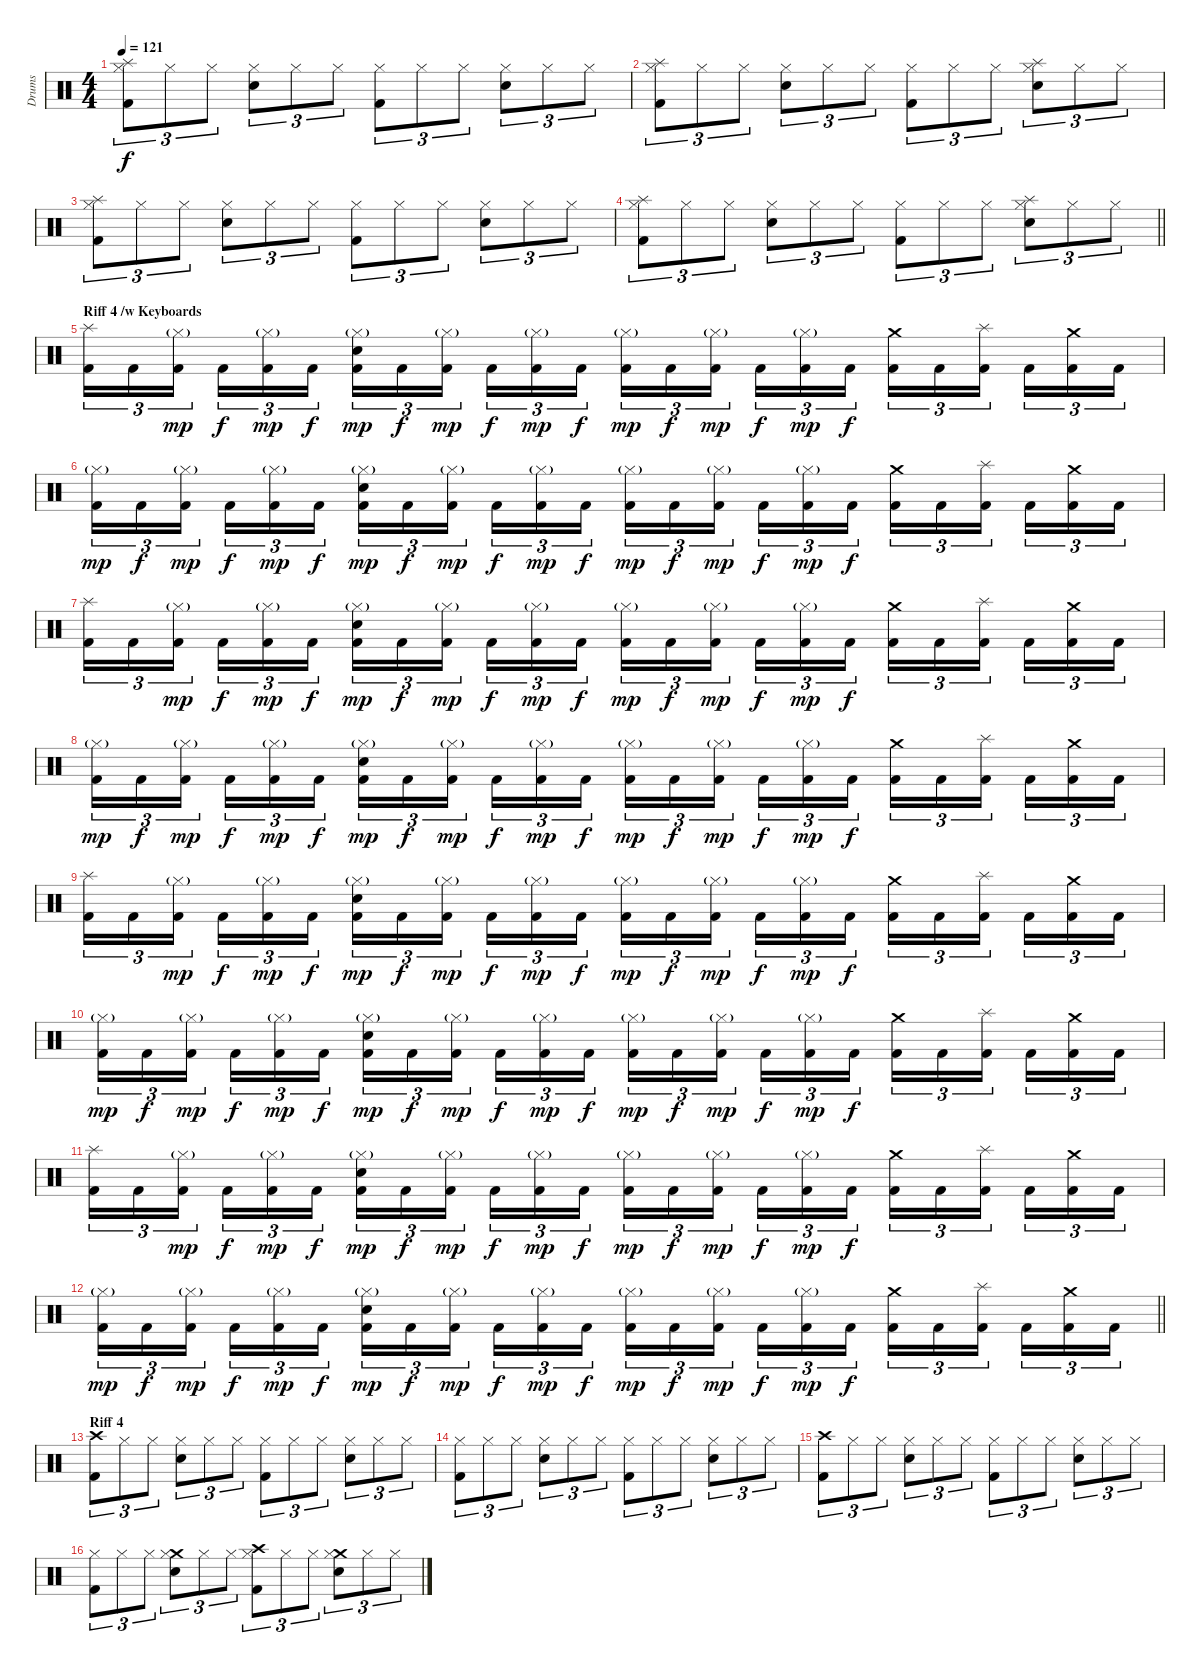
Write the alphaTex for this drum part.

\track ("Drums" "Drums") {instrument percussion}
\staff {score}
\articulation defaults
\ts (4 4)
\tempo 121
\clef neutral
\ks c
("Splash (hit)" "Kick (hit) 2" "Hi-Hat (closed)").8{tu (3 2) dy f} "Hi-Hat (closed)".8{tu (3 2)} "Hi-Hat (closed)".8{tu (3 2)} ("Snare (hit) 2" "Hi-Hat (closed)").8{tu (3 2)} "Hi-Hat (closed)".8{tu (3 2)} "Hi-Hat (closed)".8{tu (3 2)} ("Kick (hit) 2" "Hi-Hat (closed)").8{tu (3 2)} "Hi-Hat (closed)".8{tu (3 2)} "Hi-Hat (closed)".8{tu (3 2)} ("Snare (hit) 2" "Hi-Hat (closed)").8{tu (3 2)} "Hi-Hat (closed)".8{tu (3 2)} "Hi-Hat (closed)".8{tu (3 2)} |
("Splash (hit)" "Kick (hit) 2" "Hi-Hat (closed)").8{tu (3 2)} "Hi-Hat (closed)".8{tu (3 2)} "Hi-Hat (closed)".8{tu (3 2)} ("Snare (hit) 2" "Hi-Hat (closed)").8{tu (3 2)} "Hi-Hat (closed)".8{tu (3 2)} "Hi-Hat (closed)".8{tu (3 2)} ("Kick (hit) 2" "Hi-Hat (closed)").8{tu (3 2)} "Hi-Hat (closed)".8{tu (3 2)} "Hi-Hat (closed)".8{tu (3 2)} ("Splash (hit)" "Snare (hit) 2" "Hi-Hat (closed)").8{tu (3 2)} "Hi-Hat (closed)".8{tu (3 2)} "Hi-Hat (closed)".8{tu (3 2)} |
("Splash (hit)" "Kick (hit) 2" "Hi-Hat (closed)").8{tu (3 2)} "Hi-Hat (closed)".8{tu (3 2)} "Hi-Hat (closed)".8{tu (3 2)} ("Snare (hit) 2" "Hi-Hat (closed)").8{tu (3 2)} "Hi-Hat (closed)".8{tu (3 2)} "Hi-Hat (closed)".8{tu (3 2)} ("Kick (hit) 2" "Hi-Hat (closed)").8{tu (3 2)} "Hi-Hat (closed)".8{tu (3 2)} "Hi-Hat (closed)".8{tu (3 2)} ("Snare (hit) 2" "Hi-Hat (closed)").8{tu (3 2)} "Hi-Hat (closed)".8{tu (3 2)} "Hi-Hat (closed)".8{tu (3 2)} |
\barLineRight lightlight
("Splash (hit)" "Kick (hit) 2" "Hi-Hat (closed)").8{tu (3 2)} "Hi-Hat (closed)".8{tu (3 2)} "Hi-Hat (closed)".8{tu (3 2)} ("Snare (hit) 2" "Hi-Hat (closed)").8{tu (3 2)} "Hi-Hat (closed)".8{tu (3 2)} "Hi-Hat (closed)".8{tu (3 2)} ("Kick (hit) 2" "Hi-Hat (closed)").8{tu (3 2)} "Hi-Hat (closed)".8{tu (3 2)} "Hi-Hat (closed)".8{tu (3 2)} ("Splash (hit)" "Snare (hit) 2" "Hi-Hat (closed)").8{tu (3 2)} "Hi-Hat (closed)".8{tu (3 2)} "Hi-Hat (closed)".8{tu (3 2)} |
\section ("" "Riff 4 /w Keyboards")
("Kick (hit) 2" "Splash (hit)").16{tu (3 2)} "Kick (hit) 2".16{tu (3 2)} ("Kick (hit) 2" "Hi-Hat (closed)"{g}).16{tu (3 2) dy mp beam splitsecondary} "Kick (hit) 2".16{tu (3 2) dy f} ("Kick (hit) 2" "Hi-Hat (closed)"{g}).16{tu (3 2) dy mp} "Kick (hit) 2".16{tu (3 2) dy f} ("Kick (hit) 2" "Snare (hit) 2" "Hi-Hat (closed)"{g}).16{tu (3 2) dy mp} "Kick (hit) 2".16{tu (3 2) dy f} ("Kick (hit) 2" "Hi-Hat (closed)"{g}).16{tu (3 2) dy mp beam splitsecondary} "Kick (hit) 2".16{tu (3 2) dy f} ("Kick (hit) 2" "Hi-Hat (closed)"{g}).16{tu (3 2) dy mp} "Kick (hit) 2".16{tu (3 2) dy f} ("Kick (hit) 2" "Hi-Hat (closed)"{g}).16{tu (3 2) dy mp} "Kick (hit) 2".16{tu (3 2) dy f} ("Kick (hit) 2" "Hi-Hat (closed)"{g}).16{tu (3 2) dy mp beam splitsecondary} "Kick (hit) 2".16{tu (3 2) dy f} ("Kick (hit) 2" "Hi-Hat (closed)"{g}).16{tu (3 2) dy mp} "Kick (hit) 2".16{tu (3 2) dy f} ("Kick (hit) 2" "Crash medium (hit)").16{tu (3 2)} "Kick (hit) 2".16{tu (3 2)} ("Kick (hit) 2" "Splash (hit)").16{tu (3 2) beam splitsecondary} "Kick (hit) 2".16{tu (3 2)} ("Kick (hit) 2" "Crash medium (hit)").16{tu (3 2)} "Kick (hit) 2".16{tu (3 2)} |
("Kick (hit) 2" "Hi-Hat (closed)"{g}).16{tu (3 2) dy mp} "Kick (hit) 2".16{tu (3 2) dy f} ("Kick (hit) 2" "Hi-Hat (closed)"{g}).16{tu (3 2) dy mp beam splitsecondary} "Kick (hit) 2".16{tu (3 2) dy f} ("Kick (hit) 2" "Hi-Hat (closed)"{g}).16{tu (3 2) dy mp} "Kick (hit) 2".16{tu (3 2) dy f} ("Kick (hit) 2" "Snare (hit) 2" "Hi-Hat (closed)"{g}).16{tu (3 2) dy mp} "Kick (hit) 2".16{tu (3 2) dy f} ("Kick (hit) 2" "Hi-Hat (closed)"{g}).16{tu (3 2) dy mp beam splitsecondary} "Kick (hit) 2".16{tu (3 2) dy f} ("Kick (hit) 2" "Hi-Hat (closed)"{g}).16{tu (3 2) dy mp} "Kick (hit) 2".16{tu (3 2) dy f} ("Kick (hit) 2" "Hi-Hat (closed)"{g}).16{tu (3 2) dy mp} "Kick (hit) 2".16{tu (3 2) dy f} ("Kick (hit) 2" "Hi-Hat (closed)"{g}).16{tu (3 2) dy mp beam splitsecondary} "Kick (hit) 2".16{tu (3 2) dy f} ("Kick (hit) 2" "Hi-Hat (closed)"{g}).16{tu (3 2) dy mp} "Kick (hit) 2".16{tu (3 2) dy f} ("Kick (hit) 2" "Crash medium (hit)").16{tu (3 2)} "Kick (hit) 2".16{tu (3 2)} ("Kick (hit) 2" "Splash (hit)").16{tu (3 2) beam splitsecondary} "Kick (hit) 2".16{tu (3 2)} ("Kick (hit) 2" "Crash medium (hit)").16{tu (3 2)} "Kick (hit) 2".16{tu (3 2)} |
("Kick (hit) 2" "Splash (hit)").16{tu (3 2)} "Kick (hit) 2".16{tu (3 2)} ("Kick (hit) 2" "Hi-Hat (closed)"{g}).16{tu (3 2) dy mp beam splitsecondary} "Kick (hit) 2".16{tu (3 2) dy f} ("Kick (hit) 2" "Hi-Hat (closed)"{g}).16{tu (3 2) dy mp} "Kick (hit) 2".16{tu (3 2) dy f} ("Kick (hit) 2" "Snare (hit) 2" "Hi-Hat (closed)"{g}).16{tu (3 2) dy mp} "Kick (hit) 2".16{tu (3 2) dy f} ("Kick (hit) 2" "Hi-Hat (closed)"{g}).16{tu (3 2) dy mp beam splitsecondary} "Kick (hit) 2".16{tu (3 2) dy f} ("Kick (hit) 2" "Hi-Hat (closed)"{g}).16{tu (3 2) dy mp} "Kick (hit) 2".16{tu (3 2) dy f} ("Kick (hit) 2" "Hi-Hat (closed)"{g}).16{tu (3 2) dy mp} "Kick (hit) 2".16{tu (3 2) dy f} ("Kick (hit) 2" "Hi-Hat (closed)"{g}).16{tu (3 2) dy mp beam splitsecondary} "Kick (hit) 2".16{tu (3 2) dy f} ("Kick (hit) 2" "Hi-Hat (closed)"{g}).16{tu (3 2) dy mp} "Kick (hit) 2".16{tu (3 2) dy f} ("Kick (hit) 2" "Crash medium (hit)").16{tu (3 2)} "Kick (hit) 2".16{tu (3 2)} ("Kick (hit) 2" "Splash (hit)").16{tu (3 2) beam splitsecondary} "Kick (hit) 2".16{tu (3 2)} ("Kick (hit) 2" "Crash medium (hit)").16{tu (3 2)} "Kick (hit) 2".16{tu (3 2)} |
("Kick (hit) 2" "Hi-Hat (closed)"{g}).16{tu (3 2) dy mp} "Kick (hit) 2".16{tu (3 2) dy f} ("Kick (hit) 2" "Hi-Hat (closed)"{g}).16{tu (3 2) dy mp beam splitsecondary} "Kick (hit) 2".16{tu (3 2) dy f} ("Kick (hit) 2" "Hi-Hat (closed)"{g}).16{tu (3 2) dy mp} "Kick (hit) 2".16{tu (3 2) dy f} ("Kick (hit) 2" "Snare (hit) 2" "Hi-Hat (closed)"{g}).16{tu (3 2) dy mp} "Kick (hit) 2".16{tu (3 2) dy f} ("Kick (hit) 2" "Hi-Hat (closed)"{g}).16{tu (3 2) dy mp beam splitsecondary} "Kick (hit) 2".16{tu (3 2) dy f} ("Kick (hit) 2" "Hi-Hat (closed)"{g}).16{tu (3 2) dy mp} "Kick (hit) 2".16{tu (3 2) dy f} ("Kick (hit) 2" "Hi-Hat (closed)"{g}).16{tu (3 2) dy mp} "Kick (hit) 2".16{tu (3 2) dy f} ("Kick (hit) 2" "Hi-Hat (closed)"{g}).16{tu (3 2) dy mp beam splitsecondary} "Kick (hit) 2".16{tu (3 2) dy f} ("Kick (hit) 2" "Hi-Hat (closed)"{g}).16{tu (3 2) dy mp} "Kick (hit) 2".16{tu (3 2) dy f} ("Kick (hit) 2" "Crash medium (hit)").16{tu (3 2)} "Kick (hit) 2".16{tu (3 2)} ("Kick (hit) 2" "Splash (hit)").16{tu (3 2) beam splitsecondary} "Kick (hit) 2".16{tu (3 2)} ("Kick (hit) 2" "Crash medium (hit)").16{tu (3 2)} "Kick (hit) 2".16{tu (3 2)} |
("Kick (hit) 2" "Splash (hit)").16{tu (3 2)} "Kick (hit) 2".16{tu (3 2)} ("Kick (hit) 2" "Hi-Hat (closed)"{g}).16{tu (3 2) dy mp beam splitsecondary} "Kick (hit) 2".16{tu (3 2) dy f} ("Kick (hit) 2" "Hi-Hat (closed)"{g}).16{tu (3 2) dy mp} "Kick (hit) 2".16{tu (3 2) dy f} ("Kick (hit) 2" "Snare (hit) 2" "Hi-Hat (closed)"{g}).16{tu (3 2) dy mp} "Kick (hit) 2".16{tu (3 2) dy f} ("Kick (hit) 2" "Hi-Hat (closed)"{g}).16{tu (3 2) dy mp beam splitsecondary} "Kick (hit) 2".16{tu (3 2) dy f} ("Kick (hit) 2" "Hi-Hat (closed)"{g}).16{tu (3 2) dy mp} "Kick (hit) 2".16{tu (3 2) dy f} ("Kick (hit) 2" "Hi-Hat (closed)"{g}).16{tu (3 2) dy mp} "Kick (hit) 2".16{tu (3 2) dy f} ("Kick (hit) 2" "Hi-Hat (closed)"{g}).16{tu (3 2) dy mp beam splitsecondary} "Kick (hit) 2".16{tu (3 2) dy f} ("Kick (hit) 2" "Hi-Hat (closed)"{g}).16{tu (3 2) dy mp} "Kick (hit) 2".16{tu (3 2) dy f} ("Kick (hit) 2" "Crash medium (hit)").16{tu (3 2)} "Kick (hit) 2".16{tu (3 2)} ("Kick (hit) 2" "Splash (hit)").16{tu (3 2) beam splitsecondary} "Kick (hit) 2".16{tu (3 2)} ("Kick (hit) 2" "Crash medium (hit)").16{tu (3 2)} "Kick (hit) 2".16{tu (3 2)} |
("Kick (hit) 2" "Hi-Hat (closed)"{g}).16{tu (3 2) dy mp} "Kick (hit) 2".16{tu (3 2) dy f} ("Kick (hit) 2" "Hi-Hat (closed)"{g}).16{tu (3 2) dy mp beam splitsecondary} "Kick (hit) 2".16{tu (3 2) dy f} ("Kick (hit) 2" "Hi-Hat (closed)"{g}).16{tu (3 2) dy mp} "Kick (hit) 2".16{tu (3 2) dy f} ("Kick (hit) 2" "Snare (hit) 2" "Hi-Hat (closed)"{g}).16{tu (3 2) dy mp} "Kick (hit) 2".16{tu (3 2) dy f} ("Kick (hit) 2" "Hi-Hat (closed)"{g}).16{tu (3 2) dy mp beam splitsecondary} "Kick (hit) 2".16{tu (3 2) dy f} ("Kick (hit) 2" "Hi-Hat (closed)"{g}).16{tu (3 2) dy mp} "Kick (hit) 2".16{tu (3 2) dy f} ("Kick (hit) 2" "Hi-Hat (closed)"{g}).16{tu (3 2) dy mp} "Kick (hit) 2".16{tu (3 2) dy f} ("Kick (hit) 2" "Hi-Hat (closed)"{g}).16{tu (3 2) dy mp beam splitsecondary} "Kick (hit) 2".16{tu (3 2) dy f} ("Kick (hit) 2" "Hi-Hat (closed)"{g}).16{tu (3 2) dy mp} "Kick (hit) 2".16{tu (3 2) dy f} ("Kick (hit) 2" "Crash medium (hit)").16{tu (3 2)} "Kick (hit) 2".16{tu (3 2)} ("Kick (hit) 2" "Splash (hit)").16{tu (3 2) beam splitsecondary} "Kick (hit) 2".16{tu (3 2)} ("Kick (hit) 2" "Crash medium (hit)").16{tu (3 2)} "Kick (hit) 2".16{tu (3 2)} |
("Kick (hit) 2" "Splash (hit)").16{tu (3 2)} "Kick (hit) 2".16{tu (3 2)} ("Kick (hit) 2" "Hi-Hat (closed)"{g}).16{tu (3 2) dy mp beam splitsecondary} "Kick (hit) 2".16{tu (3 2) dy f} ("Kick (hit) 2" "Hi-Hat (closed)"{g}).16{tu (3 2) dy mp} "Kick (hit) 2".16{tu (3 2) dy f} ("Kick (hit) 2" "Snare (hit) 2" "Hi-Hat (closed)"{g}).16{tu (3 2) dy mp} "Kick (hit) 2".16{tu (3 2) dy f} ("Kick (hit) 2" "Hi-Hat (closed)"{g}).16{tu (3 2) dy mp beam splitsecondary} "Kick (hit) 2".16{tu (3 2) dy f} ("Kick (hit) 2" "Hi-Hat (closed)"{g}).16{tu (3 2) dy mp} "Kick (hit) 2".16{tu (3 2) dy f} ("Kick (hit) 2" "Hi-Hat (closed)"{g}).16{tu (3 2) dy mp} "Kick (hit) 2".16{tu (3 2) dy f} ("Kick (hit) 2" "Hi-Hat (closed)"{g}).16{tu (3 2) dy mp beam splitsecondary} "Kick (hit) 2".16{tu (3 2) dy f} ("Kick (hit) 2" "Hi-Hat (closed)"{g}).16{tu (3 2) dy mp} "Kick (hit) 2".16{tu (3 2) dy f} ("Kick (hit) 2" "Crash medium (hit)").16{tu (3 2)} "Kick (hit) 2".16{tu (3 2)} ("Kick (hit) 2" "Splash (hit)").16{tu (3 2) beam splitsecondary} "Kick (hit) 2".16{tu (3 2)} ("Kick (hit) 2" "Crash medium (hit)").16{tu (3 2)} "Kick (hit) 2".16{tu (3 2)} |
\barLineRight lightlight
("Kick (hit) 2" "Hi-Hat (closed)"{g}).16{tu (3 2) dy mp} "Kick (hit) 2".16{tu (3 2) dy f} ("Kick (hit) 2" "Hi-Hat (closed)"{g}).16{tu (3 2) dy mp beam splitsecondary} "Kick (hit) 2".16{tu (3 2) dy f} ("Kick (hit) 2" "Hi-Hat (closed)"{g}).16{tu (3 2) dy mp} "Kick (hit) 2".16{tu (3 2) dy f} ("Kick (hit) 2" "Snare (hit) 2" "Hi-Hat (closed)"{g}).16{tu (3 2) dy mp} "Kick (hit) 2".16{tu (3 2) dy f} ("Kick (hit) 2" "Hi-Hat (closed)"{g}).16{tu (3 2) dy mp beam splitsecondary} "Kick (hit) 2".16{tu (3 2) dy f} ("Kick (hit) 2" "Hi-Hat (closed)"{g}).16{tu (3 2) dy mp} "Kick (hit) 2".16{tu (3 2) dy f} ("Kick (hit) 2" "Hi-Hat (closed)"{g}).16{tu (3 2) dy mp} "Kick (hit) 2".16{tu (3 2) dy f} ("Kick (hit) 2" "Hi-Hat (closed)"{g}).16{tu (3 2) dy mp beam splitsecondary} "Kick (hit) 2".16{tu (3 2) dy f} ("Kick (hit) 2" "Hi-Hat (closed)"{g}).16{tu (3 2) dy mp} "Kick (hit) 2".16{tu (3 2) dy f} ("Kick (hit) 2" "Crash medium (hit)").16{tu (3 2)} "Kick (hit) 2".16{tu (3 2)} ("Kick (hit) 2" "Splash (hit)").16{tu (3 2) beam splitsecondary} "Kick (hit) 2".16{tu (3 2)} ("Kick (hit) 2" "Crash medium (hit)").16{tu (3 2)} "Kick (hit) 2".16{tu (3 2)} |
\section ("" "Riff 4")
("Crash high (hit)" "Kick (hit) 2").8{tu (3 2)} "Hi-Hat (closed)".8{tu (3 2)} "Hi-Hat (closed)".8{tu (3 2)} ("Snare (hit) 2" "Hi-Hat (closed)").8{tu (3 2)} "Hi-Hat (closed)".8{tu (3 2)} "Hi-Hat (closed)".8{tu (3 2)} ("Kick (hit) 2" "Hi-Hat (closed)").8{tu (3 2)} "Hi-Hat (closed)".8{tu (3 2)} "Hi-Hat (closed)".8{tu (3 2)} ("Snare (hit) 2" "Hi-Hat (closed)").8{tu (3 2)} "Hi-Hat (closed)".8{tu (3 2)} "Hi-Hat (closed)".8{tu (3 2)} |
("Kick (hit) 2" "Hi-Hat (closed)").8{tu (3 2)} "Hi-Hat (closed)".8{tu (3 2)} "Hi-Hat (closed)".8{tu (3 2)} ("Snare (hit) 2" "Hi-Hat (closed)").8{tu (3 2)} "Hi-Hat (closed)".8{tu (3 2)} "Hi-Hat (closed)".8{tu (3 2)} ("Kick (hit) 2" "Hi-Hat (closed)").8{tu (3 2)} "Hi-Hat (closed)".8{tu (3 2)} "Hi-Hat (closed)".8{tu (3 2)} ("Snare (hit) 2" "Hi-Hat (closed)").8{tu (3 2)} "Hi-Hat (closed)".8{tu (3 2)} "Hi-Hat (closed)".8{tu (3 2)} |
("Crash high (hit)" "Kick (hit) 2").8{tu (3 2)} "Hi-Hat (closed)".8{tu (3 2)} "Hi-Hat (closed)".8{tu (3 2)} ("Snare (hit) 2" "Hi-Hat (closed)").8{tu (3 2)} "Hi-Hat (closed)".8{tu (3 2)} "Hi-Hat (closed)".8{tu (3 2)} ("Kick (hit) 2" "Hi-Hat (closed)").8{tu (3 2)} "Hi-Hat (closed)".8{tu (3 2)} "Hi-Hat (closed)".8{tu (3 2)} ("Snare (hit) 2" "Hi-Hat (closed)").8{tu (3 2)} "Hi-Hat (closed)".8{tu (3 2)} "Hi-Hat (closed)".8{tu (3 2)} |
("Kick (hit) 2" "Hi-Hat (closed)").8{tu (3 2)} "Hi-Hat (closed)".8{tu (3 2)} "Hi-Hat (closed)".8{tu (3 2)} ("Crash medium (hit)" "Snare (hit) 2" "Hi-Hat (closed)").8{tu (3 2)} "Hi-Hat (closed)".8{tu (3 2)} "Hi-Hat (closed)".8{tu (3 2)} ("Crash high (hit)" "Kick (hit) 2" "Hi-Hat (closed)").8{tu (3 2)} "Hi-Hat (closed)".8{tu (3 2)} "Hi-Hat (closed)".8{tu (3 2)} ("Crash medium (hit)" "Snare (hit) 2" "Hi-Hat (closed)").8{tu (3 2)} "Hi-Hat (closed)".8{tu (3 2)} "Hi-Hat (closed)".8{tu (3 2)}
